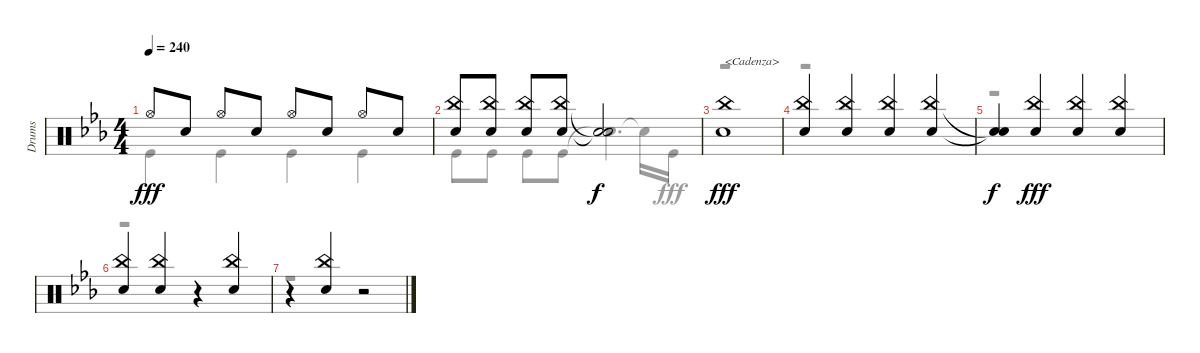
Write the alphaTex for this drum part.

\track ("Drums" "Drums") {instrument percussion}
\staff {score}
\articulation defaults
\voice
\ts (4 4)
\tempo 240
\clef neutral
\ks eb "Hi-Hat (open)".8{dy fff} "Snare (hit) 2".8 "Hi-Hat (open)".8 "Snare (hit) 2".8 "Hi-Hat (open)".8 "Snare (hit) 2".8 "Hi-Hat (open)".8 "Snare (hit) 2".8
|
("China (hit)" "Snare (hit) 2").8 ("China (hit)" "Snare (hit) 2").8 ("China (hit)" "Snare (hit) 2").8 ("China (hit)" "Snare (hit) 2").8 ("Snare (hit)"{t} "Snare (hit)"{t}).2{dy f} |
("China (hit)" "Snare (hit) 2").1{txt "<Cadenza>" dy fff} |
("China (hit)" "Snare (hit) 2").4 ("China (hit)" "Snare (hit) 2").4 ("China (hit)" "Snare (hit) 2").4 ("China (hit)" "Snare (hit) 2").4 |
("Snare (hit)"{t} "Snare (hit)"{t}).4{dy f} ("China (hit)" "Snare (hit) 2").4{dy fff} ("China (hit)" "Snare (hit) 2").4 ("China (hit)" "Snare (hit) 2").4 |
("China (hit)" "Snare (hit) 2").4 ("China (hit)" "Snare (hit) 2").4 r.4 ("China (hit)" "Snare (hit) 2").4 |
r.4 ("China (hit)" "Snare (hit) 2").4 r.2
\voice
\clef neutral
\ottava regular
\simile none
\ks eb "Kick (hit)".4{dy fff} "Kick (hit)".4 "Kick (hit)".4 "Kick (hit)".4
|
"Kick (hit)".8 "Kick (hit)".8 "Kick (hit)".8 "Kick (hit)".8 "Snare (hit)"{t}.4{d dy f} "Snare (hit)"{t}.16 "Kick (hit)".16{dy fff} |
r.1 |
r.1 |
r.1 |
r.1 |
r.1
